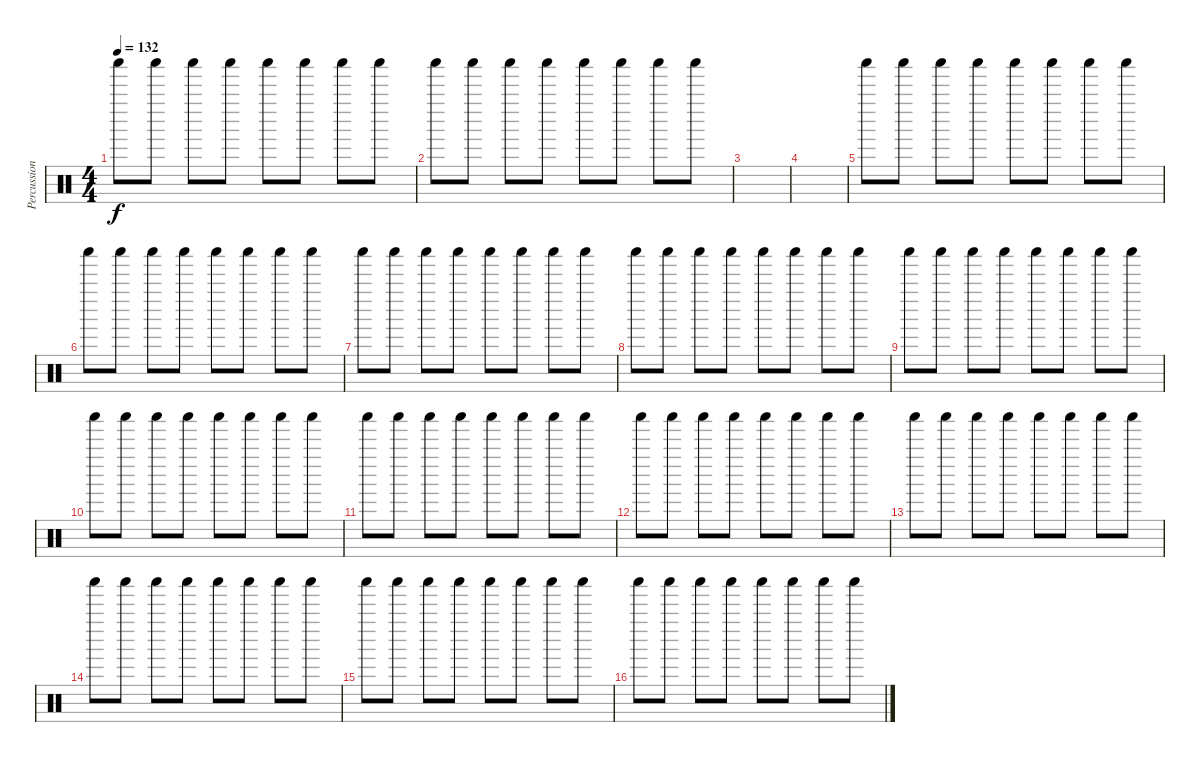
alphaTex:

\track ("Percussion" "Percussion") {instrument percussion}
\staff {score}
\articulation defaults
\ts (4 4)
\tempo 132
\clef neutral
\ks c "Shaker (hit)".8{dy f} "Shaker (hit)".8 "Shaker (hit)".8 "Shaker (hit)".8 "Shaker (hit)".8 "Shaker (hit)".8 "Shaker (hit)".8 "Shaker (hit)".8
|
"Shaker (hit)".8 "Shaker (hit)".8 "Shaker (hit)".8 "Shaker (hit)".8 "Shaker (hit)".8 "Shaker (hit)".8 "Shaker (hit)".8 "Shaker (hit)".8 |
|
|
"Shaker (hit)".8 "Shaker (hit)".8 "Shaker (hit)".8 "Shaker (hit)".8 "Shaker (hit)".8 "Shaker (hit)".8 "Shaker (hit)".8 "Shaker (hit)".8 |
"Shaker (hit)".8 "Shaker (hit)".8 "Shaker (hit)".8 "Shaker (hit)".8 "Shaker (hit)".8 "Shaker (hit)".8 "Shaker (hit)".8 "Shaker (hit)".8 |
"Shaker (hit)".8 "Shaker (hit)".8 "Shaker (hit)".8 "Shaker (hit)".8 "Shaker (hit)".8 "Shaker (hit)".8 "Shaker (hit)".8 "Shaker (hit)".8 |
"Shaker (hit)".8 "Shaker (hit)".8 "Shaker (hit)".8 "Shaker (hit)".8 "Shaker (hit)".8 "Shaker (hit)".8 "Shaker (hit)".8 "Shaker (hit)".8 |
"Shaker (hit)".8 "Shaker (hit)".8 "Shaker (hit)".8 "Shaker (hit)".8 "Shaker (hit)".8 "Shaker (hit)".8 "Shaker (hit)".8 "Shaker (hit)".8 |
"Shaker (hit)".8 "Shaker (hit)".8 "Shaker (hit)".8 "Shaker (hit)".8 "Shaker (hit)".8 "Shaker (hit)".8 "Shaker (hit)".8 "Shaker (hit)".8 |
"Shaker (hit)".8 "Shaker (hit)".8 "Shaker (hit)".8 "Shaker (hit)".8 "Shaker (hit)".8 "Shaker (hit)".8 "Shaker (hit)".8 "Shaker (hit)".8 |
"Shaker (hit)".8 "Shaker (hit)".8 "Shaker (hit)".8 "Shaker (hit)".8 "Shaker (hit)".8 "Shaker (hit)".8 "Shaker (hit)".8 "Shaker (hit)".8 |
"Shaker (hit)".8 "Shaker (hit)".8 "Shaker (hit)".8 "Shaker (hit)".8 "Shaker (hit)".8 "Shaker (hit)".8 "Shaker (hit)".8 "Shaker (hit)".8 |
"Shaker (hit)".8 "Shaker (hit)".8 "Shaker (hit)".8 "Shaker (hit)".8 "Shaker (hit)".8 "Shaker (hit)".8 "Shaker (hit)".8 "Shaker (hit)".8 |
"Shaker (hit)".8 "Shaker (hit)".8 "Shaker (hit)".8 "Shaker (hit)".8 "Shaker (hit)".8 "Shaker (hit)".8 "Shaker (hit)".8 "Shaker (hit)".8 |
"Shaker (hit)".8 "Shaker (hit)".8 "Shaker (hit)".8 "Shaker (hit)".8 "Shaker (hit)".8 "Shaker (hit)".8 "Shaker (hit)".8 "Shaker (hit)".8
